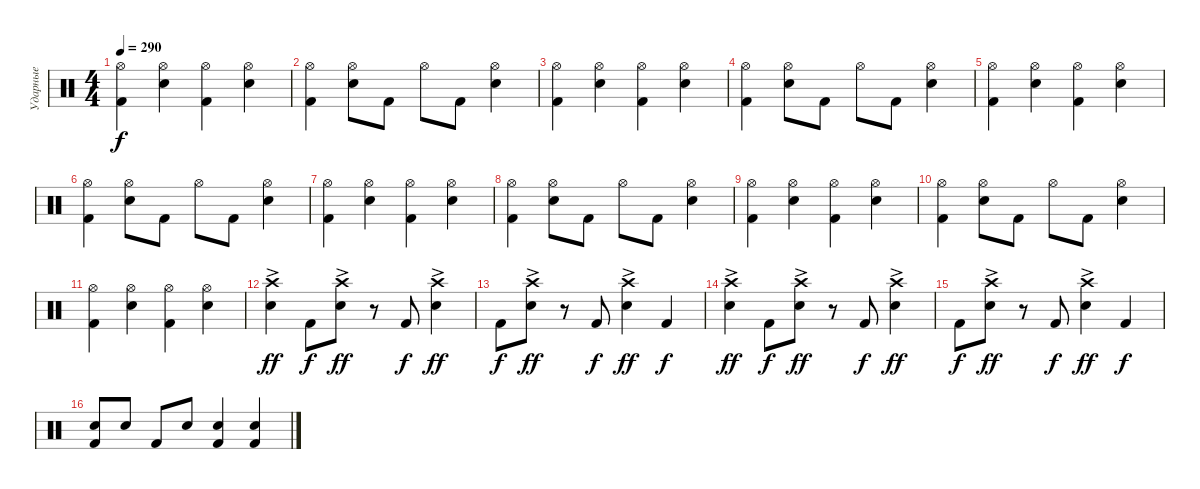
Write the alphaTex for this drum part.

\track ("Ударные" "Ударные") {instrument percussion}
\staff {score}
\articulation defaults
\ts (4 4)
\tempo 290
\clef neutral
\ks c
("Kick (hit) 2" "Hi-Hat (open)").4{dy f} ("Snare (hit) 2" "Hi-Hat (open)").4 ("Kick (hit) 2" "Hi-Hat (open)").4 ("Snare (hit) 2" "Hi-Hat (open)").4 |
("Kick (hit) 2" "Hi-Hat (open)").4 ("Snare (hit) 2" "Hi-Hat (open)").8 "Kick (hit) 2".8 "Hi-Hat (open)".8 "Kick (hit) 2".8 ("Snare (hit) 2" "Hi-Hat (open)").4 |
("Kick (hit) 2" "Hi-Hat (open)").4 ("Snare (hit) 2" "Hi-Hat (open)").4 ("Kick (hit) 2" "Hi-Hat (open)").4 ("Snare (hit) 2" "Hi-Hat (open)").4 |
("Kick (hit) 2" "Hi-Hat (open)").4 ("Snare (hit) 2" "Hi-Hat (open)").8 "Kick (hit) 2".8 "Hi-Hat (open)".8 "Kick (hit) 2".8 ("Snare (hit) 2" "Hi-Hat (open)").4 |
("Kick (hit) 2" "Hi-Hat (open)").4 ("Snare (hit) 2" "Hi-Hat (open)").4 ("Kick (hit) 2" "Hi-Hat (open)").4 ("Snare (hit) 2" "Hi-Hat (open)").4 |
("Kick (hit) 2" "Hi-Hat (open)").4 ("Snare (hit) 2" "Hi-Hat (open)").8 "Kick (hit) 2".8 "Hi-Hat (open)".8 "Kick (hit) 2".8 ("Snare (hit) 2" "Hi-Hat (open)").4 |
("Kick (hit) 2" "Hi-Hat (open)").4 ("Snare (hit) 2" "Hi-Hat (open)").4 ("Kick (hit) 2" "Hi-Hat (open)").4 ("Snare (hit) 2" "Hi-Hat (open)").4 |
("Kick (hit) 2" "Hi-Hat (open)").4 ("Snare (hit) 2" "Hi-Hat (open)").8 "Kick (hit) 2".8 "Hi-Hat (open)".8 "Kick (hit) 2".8 ("Snare (hit) 2" "Hi-Hat (open)").4 |
("Kick (hit) 2" "Hi-Hat (open)").4 ("Snare (hit) 2" "Hi-Hat (open)").4 ("Kick (hit) 2" "Hi-Hat (open)").4 ("Snare (hit) 2" "Hi-Hat (open)").4 |
("Kick (hit) 2" "Hi-Hat (open)").4 ("Snare (hit) 2" "Hi-Hat (open)").8 "Kick (hit) 2".8 "Hi-Hat (open)".8 "Kick (hit) 2".8 ("Snare (hit) 2" "Hi-Hat (open)").4 |
("Kick (hit) 2" "Hi-Hat (open)").4 ("Snare (hit) 2" "Hi-Hat (open)").4 ("Kick (hit) 2" "Hi-Hat (open)").4 ("Snare (hit) 2" "Hi-Hat (open)").4 |
("Snare (hit) 2" "Crash high (hit)"{ac}).4{dy ff} "Kick (hit) 2".8{dy f} ("Snare (hit) 2" "Crash high (hit)"{ac}).8{dy ff} r.8 "Kick (hit) 2".8{dy f} ("Snare (hit) 2" "Crash high (hit)"{ac}).4{dy ff} |
"Kick (hit) 2".8{dy f} ("Snare (hit) 2" "Crash high (hit)"{ac}).8{dy ff} r.8 "Kick (hit) 2".8{dy f} ("Snare (hit) 2" "Crash high (hit)"{ac}).4{dy ff} "Kick (hit) 2".4{dy f} |
("Snare (hit) 2" "Crash high (hit)"{ac}).4{dy ff} "Kick (hit) 2".8{dy f} ("Snare (hit) 2" "Crash high (hit)"{ac}).8{dy ff} r.8 "Kick (hit) 2".8{dy f} ("Snare (hit) 2" "Crash high (hit)"{ac}).4{dy ff} |
"Kick (hit) 2".8{dy f} ("Snare (hit) 2" "Crash high (hit)"{ac}).8{dy ff} r.8 "Kick (hit) 2".8{dy f} ("Snare (hit) 2" "Crash high (hit)"{ac}).4{dy ff} "Kick (hit) 2".4{dy f} |
("Kick (hit) 2" "Snare (hit) 2").8 "Snare (hit) 2".8 "Kick (hit) 2".8 "Snare (hit) 2".8 ("Kick (hit) 2" "Snare (hit) 2").4 ("Kick (hit) 2" "Snare (hit) 2").4
